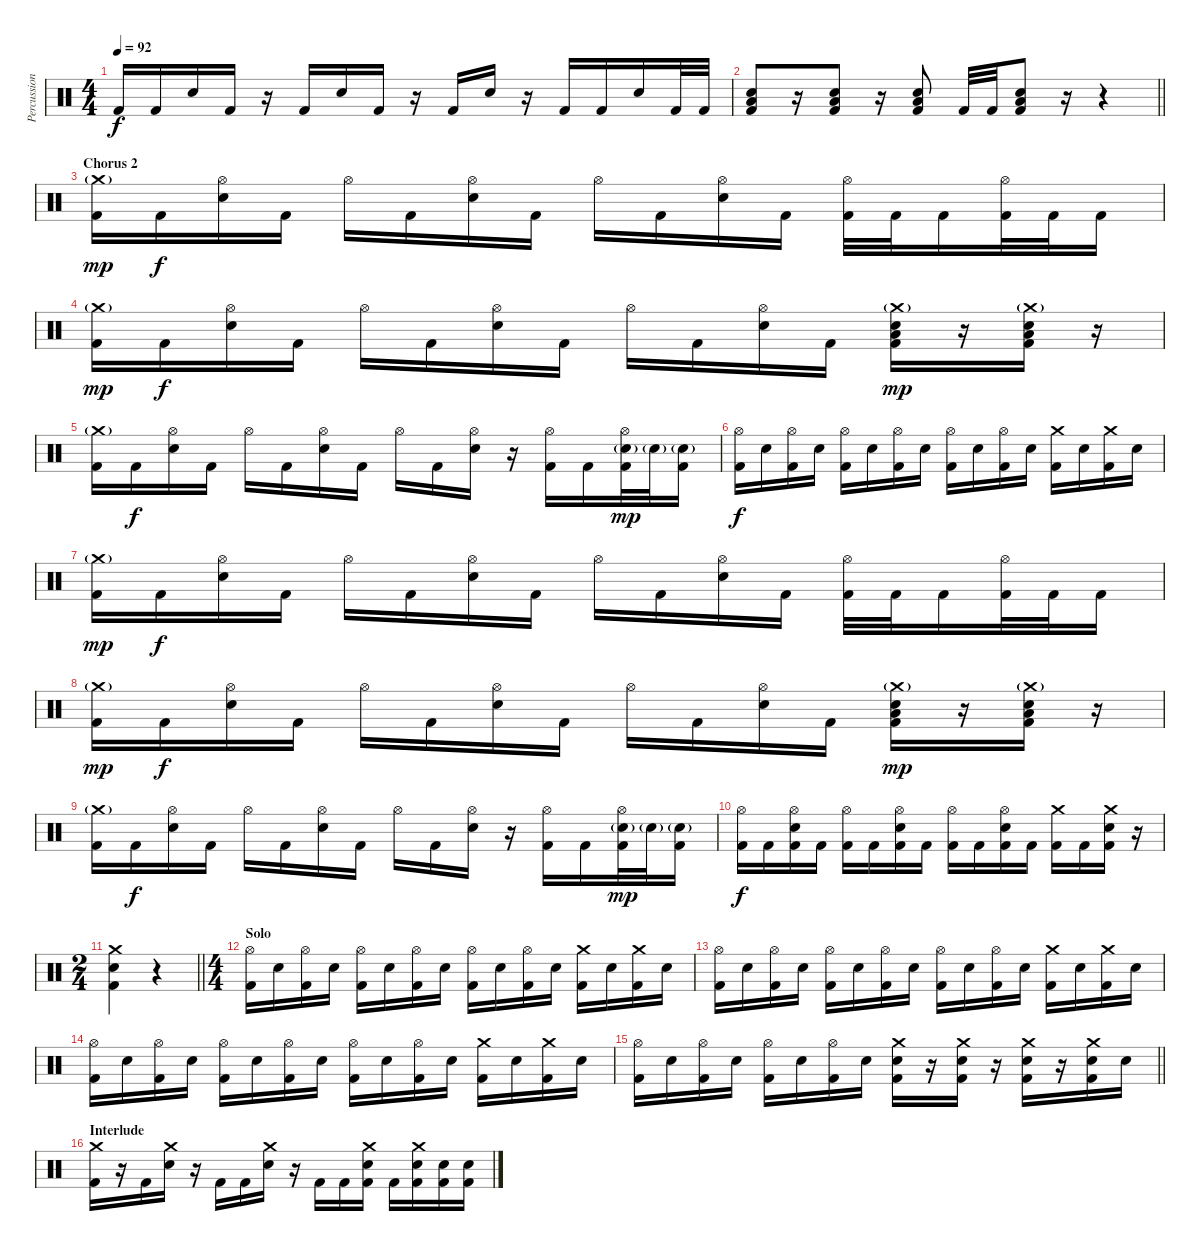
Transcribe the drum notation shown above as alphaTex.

\track ("Percussion" "Percussion") {instrument percussion}
\staff {score}
\articulation defaults
\ts (4 4)
\tempo 92
\clef neutral
\ks c "Kick (hit) 2".16{dy f} "Kick (hit) 2".16 "Electric Snare (hit)".16 "Kick (hit) 2".16
r.16 "Kick (hit) 2".16 "Electric Snare (hit)".16 "Kick (hit) 2".16 r.16 "Kick (hit) 2".16 "Electric Snare (hit)".16 r.16 "Kick (hit) 2".16 "Kick (hit) 2".16 "Electric Snare (hit)".16 "Kick (hit) 2".32 "Kick (hit) 2".32 |
\barLineRight lightlight
("Low Floor Tom (hit)" "Electric Snare (hit)" "Kick (hit) 2").8 r.16 ("Low Floor Tom (hit)" "Electric Snare (hit)" "Kick (hit) 2").8 r.16 ("Low Floor Tom (hit)" "Electric Snare (hit)" "Kick (hit) 2").8 "Kick (hit) 2".32 "Kick (hit) 2".32 ("Low Floor Tom (hit)" "Electric Snare (hit)" "Kick (hit) 2").8 r.16 r.4 |
\section ("" "Chorus 2")
("Crash medium (hit)"{g} "Kick (hit) 2").16{dy mp} "Kick (hit) 2".16{dy f} ("Hi-Hat (open)" "Electric Snare (hit)").16 "Kick (hit) 2".16 "Hi-Hat (open)".16 "Kick (hit) 2".16 ("Hi-Hat (open)" "Electric Snare (hit)").16 "Kick (hit) 2".16 "Hi-Hat (open)".16 "Kick (hit) 2".16 ("Hi-Hat (open)" "Electric Snare (hit)").16 "Kick (hit) 2".16 ("Hi-Hat (open)" "Kick (hit) 2").32 "Kick (hit) 2".32 "Kick (hit) 2".16 ("Hi-Hat (open)" "Kick (hit) 2").32 "Kick (hit) 2".32 "Kick (hit) 2".16 |
("Crash medium (hit)"{g} "Kick (hit) 2").16{dy mp} "Kick (hit) 2".16{dy f} ("Hi-Hat (open)" "Electric Snare (hit)").16 "Kick (hit) 2".16 "Hi-Hat (open)".16 "Kick (hit) 2".16 ("Hi-Hat (open)" "Electric Snare (hit)").16 "Kick (hit) 2".16 "Hi-Hat (open)".16 "Kick (hit) 2".16 ("Hi-Hat (open)" "Electric Snare (hit)").16 "Kick (hit) 2".16 ("Crash medium (hit)"{g} "Low Floor Tom (hit)" "Electric Snare (hit)" "Kick (hit) 2").16{dy mp} r.16 ("Crash medium (hit)"{g} "Low Floor Tom (hit)" "Electric Snare (hit)" "Kick (hit) 2").16 r.16 |
("Crash medium (hit)"{g} "Kick (hit) 2").16 "Kick (hit) 2".16{dy f} ("Hi-Hat (open)" "Electric Snare (hit)").16 "Kick (hit) 2".16 "Hi-Hat (open)".16 "Kick (hit) 2".16 ("Hi-Hat (open)" "Electric Snare (hit)").16 "Kick (hit) 2".16 "Hi-Hat (open)".16 "Kick (hit) 2".16 ("Hi-Hat (open)" "Electric Snare (hit)").16 r.16 ("Hi-Hat (open)" "Kick (hit) 2").16 "Kick (hit) 2".16 ("Hi-Hat (open)" "Electric Snare (hit)"{g} "Kick (hit) 2").32{dy mp} "Electric Snare (hit)"{g}.32 ("Electric Snare (hit)"{g} "Kick (hit) 2").16 |
("Hi-Hat (open)" "Kick (hit) 2").16{dy f} "Electric Snare (hit)".16 ("Hi-Hat (open)" "Kick (hit) 2").16 "Electric Snare (hit)".16 ("Hi-Hat (open)" "Kick (hit) 2").16 "Electric Snare (hit)".16 ("Hi-Hat (open)" "Kick (hit) 2").16 "Electric Snare (hit)".16 ("Hi-Hat (open)" "Kick (hit) 2").16 "Electric Snare (hit)".16 ("Hi-Hat (open)" "Kick (hit) 2").16 "Electric Snare (hit)".16 ("Crash medium (hit)" "Kick (hit) 2").16 "Electric Snare (hit)".16 ("Crash medium (hit)" "Kick (hit) 2").16 "Electric Snare (hit)".16 |
("Crash medium (hit)"{g} "Kick (hit) 2").16{dy mp} "Kick (hit) 2".16{dy f} ("Hi-Hat (open)" "Electric Snare (hit)").16 "Kick (hit) 2".16 "Hi-Hat (open)".16 "Kick (hit) 2".16 ("Hi-Hat (open)" "Electric Snare (hit)").16 "Kick (hit) 2".16 "Hi-Hat (open)".16 "Kick (hit) 2".16 ("Hi-Hat (open)" "Electric Snare (hit)").16 "Kick (hit) 2".16 ("Hi-Hat (open)" "Kick (hit) 2").32 "Kick (hit) 2".32 "Kick (hit) 2".16 ("Hi-Hat (open)" "Kick (hit) 2").32 "Kick (hit) 2".32 "Kick (hit) 2".16 |
("Crash medium (hit)"{g} "Kick (hit) 2").16{dy mp} "Kick (hit) 2".16{dy f} ("Hi-Hat (open)" "Electric Snare (hit)").16 "Kick (hit) 2".16 "Hi-Hat (open)".16 "Kick (hit) 2".16 ("Hi-Hat (open)" "Electric Snare (hit)").16 "Kick (hit) 2".16 "Hi-Hat (open)".16 "Kick (hit) 2".16 ("Hi-Hat (open)" "Electric Snare (hit)").16 "Kick (hit) 2".16 ("Crash medium (hit)"{g} "Low Floor Tom (hit)" "Electric Snare (hit)" "Kick (hit) 2").16{dy mp} r.16 ("Crash medium (hit)"{g} "Low Floor Tom (hit)" "Electric Snare (hit)" "Kick (hit) 2").16 r.16 |
("Crash medium (hit)"{g} "Kick (hit) 2").16 "Kick (hit) 2".16{dy f} ("Hi-Hat (open)" "Electric Snare (hit)").16 "Kick (hit) 2".16 "Hi-Hat (open)".16 "Kick (hit) 2".16 ("Hi-Hat (open)" "Electric Snare (hit)").16 "Kick (hit) 2".16 "Hi-Hat (open)".16 "Kick (hit) 2".16 ("Hi-Hat (open)" "Electric Snare (hit)").16 r.16 ("Hi-Hat (open)" "Kick (hit) 2").16 "Kick (hit) 2".16 ("Hi-Hat (open)" "Electric Snare (hit)"{g} "Kick (hit) 2").32{dy mp} "Electric Snare (hit)"{g}.32 ("Electric Snare (hit)"{g} "Kick (hit) 2").16 |
("Hi-Hat (open)" "Kick (hit) 2").16{dy f} "Kick (hit) 2".16 ("Hi-Hat (open)" "Electric Snare (hit)" "Kick (hit) 2").16 "Kick (hit) 2".16 ("Hi-Hat (open)" "Kick (hit) 2").16 "Kick (hit) 2".16 ("Hi-Hat (open)" "Electric Snare (hit)" "Kick (hit) 2").16 "Kick (hit) 2".16 ("Hi-Hat (open)" "Kick (hit) 2").16 "Kick (hit) 2".16 ("Hi-Hat (open)" "Electric Snare (hit)" "Kick (hit) 2").16 "Kick (hit) 2".16 ("Crash medium (hit)" "Kick (hit) 2").16 "Kick (hit) 2".16 ("Crash medium (hit)" "Electric Snare (hit)" "Kick (hit) 2").16 r.16 |
\ts (2 4)
\barLineRight lightlight
("Crash medium (hit)" "Electric Snare (hit)" "Kick (hit) 2").4 r.4 |
\ts (4 4)
\section ("" "Solo")
("Hi-Hat (open)" "Kick (hit) 2").16 "Electric Snare (hit)".16 ("Hi-Hat (open)" "Kick (hit) 2").16 "Electric Snare (hit)".16 ("Hi-Hat (open)" "Kick (hit) 2").16 "Electric Snare (hit)".16 ("Hi-Hat (open)" "Kick (hit) 2").16 "Electric Snare (hit)".16 ("Hi-Hat (open)" "Kick (hit) 2").16 "Electric Snare (hit)".16 ("Hi-Hat (open)" "Kick (hit) 2").16 "Electric Snare (hit)".16 ("Crash medium (hit)" "Kick (hit) 2").16 "Electric Snare (hit)".16 ("Crash medium (hit)" "Kick (hit) 2").16 "Electric Snare (hit)".16 |
("Hi-Hat (open)" "Kick (hit) 2").16 "Electric Snare (hit)".16 ("Hi-Hat (open)" "Kick (hit) 2").16 "Electric Snare (hit)".16 ("Hi-Hat (open)" "Kick (hit) 2").16 "Electric Snare (hit)".16 ("Hi-Hat (open)" "Kick (hit) 2").16 "Electric Snare (hit)".16 ("Hi-Hat (open)" "Kick (hit) 2").16 "Electric Snare (hit)".16 ("Hi-Hat (open)" "Kick (hit) 2").16 "Electric Snare (hit)".16 ("Crash medium (hit)" "Kick (hit) 2").16 "Electric Snare (hit)".16 ("Crash medium (hit)" "Kick (hit) 2").16 "Electric Snare (hit)".16 |
("Hi-Hat (open)" "Kick (hit) 2").16 "Electric Snare (hit)".16 ("Hi-Hat (open)" "Kick (hit) 2").16 "Electric Snare (hit)".16 ("Hi-Hat (open)" "Kick (hit) 2").16 "Electric Snare (hit)".16 ("Hi-Hat (open)" "Kick (hit) 2").16 "Electric Snare (hit)".16 ("Hi-Hat (open)" "Kick (hit) 2").16 "Electric Snare (hit)".16 ("Hi-Hat (open)" "Kick (hit) 2").16 "Electric Snare (hit)".16 ("Crash medium (hit)" "Kick (hit) 2").16 "Electric Snare (hit)".16 ("Crash medium (hit)" "Kick (hit) 2").16 "Electric Snare (hit)".16 |
\barLineRight lightlight
("Hi-Hat (open)" "Kick (hit) 2").16 "Electric Snare (hit)".16 ("Hi-Hat (open)" "Kick (hit) 2").16 "Electric Snare (hit)".16 ("Hi-Hat (open)" "Kick (hit) 2").16 "Electric Snare (hit)".16 ("Hi-Hat (open)" "Kick (hit) 2").16 "Electric Snare (hit)".16 ("Crash medium (hit)" "Electric Snare (hit)" "Kick (hit) 2").16 r.16 ("Crash medium (hit)" "Electric Snare (hit)" "Kick (hit) 2").16 r.16 ("Crash medium (hit)" "Electric Snare (hit)" "Kick (hit) 2").16 r.16 ("Crash medium (hit)" "Electric Snare (hit)" "Kick (hit) 2").16 "Electric Snare (hit)".16 |
\section ("" "Interlude")
("Crash medium (hit)" "Kick (hit) 2").16 r.16 "Kick (hit) 2".16 ("Crash medium (hit)" "Electric Snare (hit)").16 r.16 "Kick (hit) 2".16 "Kick (hit) 2".16 ("Crash medium (hit)" "Electric Snare (hit)").16 r.16 "Kick (hit) 2".16 "Kick (hit) 2".16 ("Crash medium (hit)" "Electric Snare (hit)" "Kick (hit) 2").16 "Kick (hit) 2".16 ("Crash medium (hit)" "Electric Snare (hit)" "Kick (hit) 2").16 ("Electric Snare (hit)" "Kick (hit) 2").16 ("Electric Snare (hit)" "Kick (hit) 2").16
